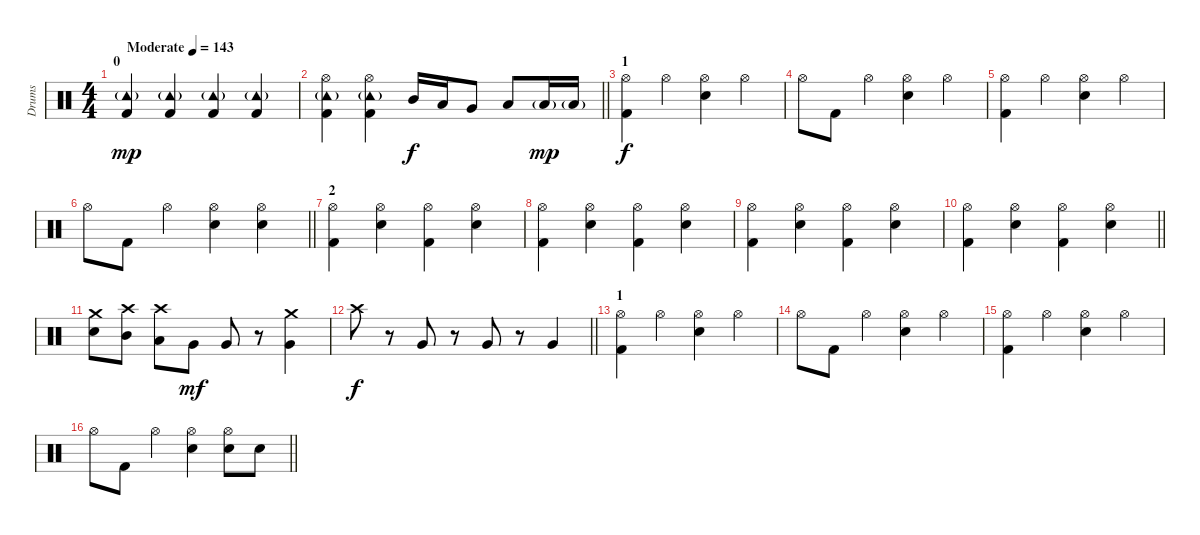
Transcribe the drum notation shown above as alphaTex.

\track ("Drums" "Drums") {instrument percussion}
\staff {score}
\articulation defaults
\ts (4 4)
\section ("" "0")
\tempo (143 "Moderate")
\clef neutral
\ks c
("Tambourine (hit)"{g} "Kick (hit) 2").4{dy mp} ("Tambourine (hit)"{g} "Kick (hit) 2").4 ("Tambourine (hit)"{g} "Kick (hit) 2").4 ("Tambourine (hit)"{g} "Kick (hit) 2").4 |
\barLineRight lightlight
("Tambourine (hit)"{g} "Hi-Hat (open)" "Kick (hit) 2").4 ("Tambourine (hit)"{g} "Hi-Hat (open)" "Kick (hit) 2").4 "Mid Tom (hit)".16{dy f} "Low Tom (hit)".16 "Very Low Tom (hit)".8 "Low Tom (hit)".8 "Low Tom (hit)"{g}.16{dy mp} "Low Tom (hit)"{g}.16 |
\section ("" "1")
("Hi-Hat (open)" "Kick (hit) 2").4{dy f} "Hi-Hat (open)".4 ("Hi-Hat (open)" "Electric Snare (hit)").4 "Hi-Hat (open)".4 |
"Hi-Hat (open)".8 "Kick (hit) 2".8 "Hi-Hat (open)".4 ("Hi-Hat (open)" "Electric Snare (hit)").4 "Hi-Hat (open)".4 |
("Hi-Hat (open)" "Kick (hit) 2").4 "Hi-Hat (open)".4 ("Hi-Hat (open)" "Electric Snare (hit)").4 "Hi-Hat (open)".4 |
\barLineRight lightlight "Hi-Hat (open)".8 "Kick (hit) 2".8 "Hi-Hat (open)".4
("Hi-Hat (open)" "Electric Snare (hit)").4 ("Hi-Hat (open)" "Electric Snare (hit)").4 |
\section ("" "2")
("Hi-Hat (open)" "Kick (hit) 2").4 ("Hi-Hat (open)" "Electric Snare (hit)").4 ("Hi-Hat (open)" "Kick (hit) 2").4 ("Hi-Hat (open)" "Electric Snare (hit)").4 |
("Hi-Hat (open)" "Kick (hit) 2").4 ("Hi-Hat (open)" "Electric Snare (hit)").4 ("Hi-Hat (open)" "Kick (hit) 2").4 ("Hi-Hat (open)" "Electric Snare (hit)").4 |
("Hi-Hat (open)" "Kick (hit) 2").4 ("Hi-Hat (open)" "Electric Snare (hit)").4 ("Hi-Hat (open)" "Kick (hit) 2").4 ("Hi-Hat (open)" "Electric Snare (hit)").4 |
\barLineRight lightlight
("Hi-Hat (open)" "Kick (hit) 2").4 ("Hi-Hat (open)" "Electric Snare (hit)").4 ("Hi-Hat (open)" "Kick (hit) 2").4 ("Hi-Hat (open)" "Electric Snare (hit)").4 |
\section ("" "")
("Crash medium (hit)" "Electric Snare (hit)").8 ("Crash high (hit)" "Mid Tom (hit)").8 ("Crash high (hit)" "Low Tom (hit)").8 "Very Low Tom (hit)".8{dy mf} "Very Low Tom (hit)".8 r.8 ("Crash medium (hit)" "Very Low Tom (hit)").4 |
\barLineRight lightlight "Crash high (hit)".8{dy f}
r.8 "Very Low Tom (hit)".8 r.8 "Very Low Tom (hit)".8 r.8 "Very Low Tom (hit)".4 |
\section ("" "1")
("Hi-Hat (open)" "Kick (hit) 2").4 "Hi-Hat (open)".4 ("Hi-Hat (open)" "Electric Snare (hit)").4 "Hi-Hat (open)".4 |
"Hi-Hat (open)".8 "Kick (hit) 2".8 "Hi-Hat (open)".4 ("Hi-Hat (open)" "Electric Snare (hit)").4 "Hi-Hat (open)".4 |
("Hi-Hat (open)" "Kick (hit) 2").4 "Hi-Hat (open)".4 ("Hi-Hat (open)" "Electric Snare (hit)").4 "Hi-Hat (open)".4 |
\barLineRight lightlight "Hi-Hat (open)".8 "Kick (hit) 2".8 "Hi-Hat (open)".4
("Hi-Hat (open)" "Electric Snare (hit)").4 ("Hi-Hat (open)" "Electric Snare (hit)").8 "Electric Snare (hit)".8
